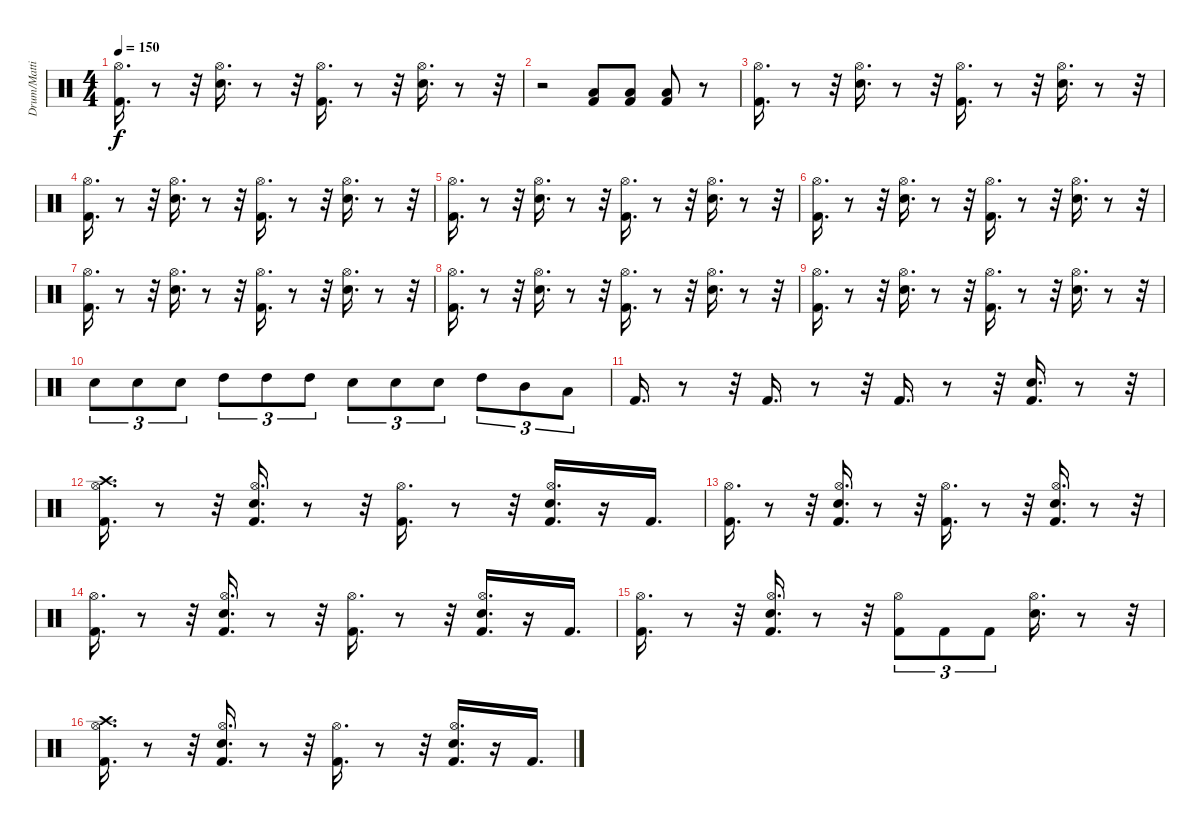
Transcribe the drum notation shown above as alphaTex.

\track ("Drum/Matti" "Drum/Matti") {instrument percussion}
\staff {score}
\articulation defaults
\ts (4 4)
\tempo 150
\clef neutral
\ks c
("Kick (hit) 2" "Hi-Hat (open)").16{d dy f} r.8 r.32 ("Electric Snare (hit)" "Hi-Hat (open)").16{d} r.8 r.32 ("Kick (hit) 2" "Hi-Hat (open)").16{d} r.8 r.32 ("Electric Snare (hit)" "Hi-Hat (open)").16{d} r.8 r.32 |
r.2 ("Kick (hit) 2" "Low Tom (hit)").8 ("Kick (hit) 2" "Low Tom (hit)").8 ("Kick (hit) 2" "Low Tom (hit)").8 r.8 |
("Kick (hit) 2" "Hi-Hat (open)").16{d} r.8 r.32 ("Electric Snare (hit)" "Hi-Hat (open)").16{d} r.8 r.32 ("Kick (hit) 2" "Hi-Hat (open)").16{d} r.8 r.32 ("Electric Snare (hit)" "Hi-Hat (open)").16{d} r.8 r.32 |
("Kick (hit) 2" "Hi-Hat (open)").16{d} r.8 r.32 ("Electric Snare (hit)" "Hi-Hat (open)").16{d} r.8 r.32 ("Kick (hit) 2" "Hi-Hat (open)").16{d} r.8 r.32 ("Electric Snare (hit)" "Hi-Hat (open)").16{d} r.8 r.32 |
("Kick (hit) 2" "Hi-Hat (open)").16{d} r.8 r.32 ("Electric Snare (hit)" "Hi-Hat (open)").16{d} r.8 r.32 ("Kick (hit) 2" "Hi-Hat (open)").16{d} r.8 r.32 ("Electric Snare (hit)" "Hi-Hat (open)").16{d} r.8 r.32 |
("Kick (hit) 2" "Hi-Hat (open)").16{d} r.8 r.32 ("Electric Snare (hit)" "Hi-Hat (open)").16{d} r.8 r.32 ("Kick (hit) 2" "Hi-Hat (open)").16{d} r.8 r.32 ("Electric Snare (hit)" "Hi-Hat (open)").16{d} r.8 r.32 |
("Kick (hit) 2" "Hi-Hat (open)").16{d} r.8 r.32 ("Electric Snare (hit)" "Hi-Hat (open)").16{d} r.8 r.32 ("Kick (hit) 2" "Hi-Hat (open)").16{d} r.8 r.32 ("Electric Snare (hit)" "Hi-Hat (open)").16{d} r.8 r.32 |
("Kick (hit) 2" "Hi-Hat (open)").16{d} r.8 r.32 ("Electric Snare (hit)" "Hi-Hat (open)").16{d} r.8 r.32 ("Kick (hit) 2" "Hi-Hat (open)").16{d} r.8 r.32 ("Electric Snare (hit)" "Hi-Hat (open)").16{d} r.8 r.32 |
("Kick (hit) 2" "Hi-Hat (open)").16{d} r.8 r.32 ("Electric Snare (hit)" "Hi-Hat (open)").16{d} r.8 r.32 ("Kick (hit) 2" "Hi-Hat (open)").16{d} r.8 r.32 ("Electric Snare (hit)" "Hi-Hat (open)").16{d} r.8 r.32 |
"Electric Snare (hit)".8{tu (3 2)} "Electric Snare (hit)".8{tu (3 2)} "Electric Snare (hit)".8{tu (3 2)} "High Tom (hit)".8{tu (3 2)} "High Tom (hit)".8{tu (3 2)} "High Tom (hit)".8{tu (3 2)} "Electric Snare (hit)".8{tu (3 2)} "Electric Snare (hit)".8{tu (3 2)} "Electric Snare (hit)".8{tu (3 2)} "High Tom (hit)".8{tu (3 2)} "Mid Tom (hit)".8{tu (3 2)} "Low Tom (hit)".8{tu (3 2)} |
"Kick (hit) 2".16{d} r.8 r.32 "Kick (hit) 2".16{d} r.8 r.32 "Kick (hit) 2".16{d} r.8 r.32 ("Kick (hit) 2" "Electric Snare (hit)").16{d} r.8 r.32 |
("Kick (hit) 2" "Hi-Hat (open)" "Crash high (hit)").16{d} r.8 r.32 ("Kick (hit) 2" "Hi-Hat (open)" "Electric Snare (hit)").16{d} r.8 r.32 ("Kick (hit) 2" "Hi-Hat (open)").16{d} r.8 r.32 ("Kick (hit) 2" "Hi-Hat (open)" "Electric Snare (hit)").16{d} r.16 "Kick (hit) 2".16{d} |
("Kick (hit) 2" "Hi-Hat (open)").16{d} r.8 r.32 ("Kick (hit) 2" "Hi-Hat (open)" "Electric Snare (hit)").16{d} r.8 r.32 ("Kick (hit) 2" "Hi-Hat (open)").16{d} r.8 r.32 ("Kick (hit) 2" "Hi-Hat (open)" "Electric Snare (hit)").16{d} r.8 r.32 |
("Kick (hit) 2" "Hi-Hat (open)").16{d} r.8 r.32 ("Kick (hit) 2" "Hi-Hat (open)" "Electric Snare (hit)").16{d} r.8 r.32 ("Kick (hit) 2" "Hi-Hat (open)").16{d} r.8 r.32 ("Kick (hit) 2" "Hi-Hat (open)" "Electric Snare (hit)").16{d} r.16 "Kick (hit) 2".16{d} |
("Kick (hit) 2" "Hi-Hat (open)").16{d} r.8 r.32 ("Kick (hit) 2" "Hi-Hat (open)" "Electric Snare (hit)").16{d} r.8 r.32 ("Kick (hit) 2" "Hi-Hat (open)").8{tu (3 2)} "Kick (hit) 2".8{tu (3 2)} "Kick (hit) 2".8{tu (3 2)} ("Hi-Hat (open)" "Electric Snare (hit)").16{d} r.8 r.32 |
("Kick (hit) 2" "Hi-Hat (open)" "Crash high (hit)").16{d} r.8 r.32 ("Kick (hit) 2" "Hi-Hat (open)" "Electric Snare (hit)").16{d} r.8 r.32 ("Kick (hit) 2" "Hi-Hat (open)").16{d} r.8 r.32 ("Kick (hit) 2" "Hi-Hat (open)" "Electric Snare (hit)").16{d} r.16 "Kick (hit) 2".16{d}
